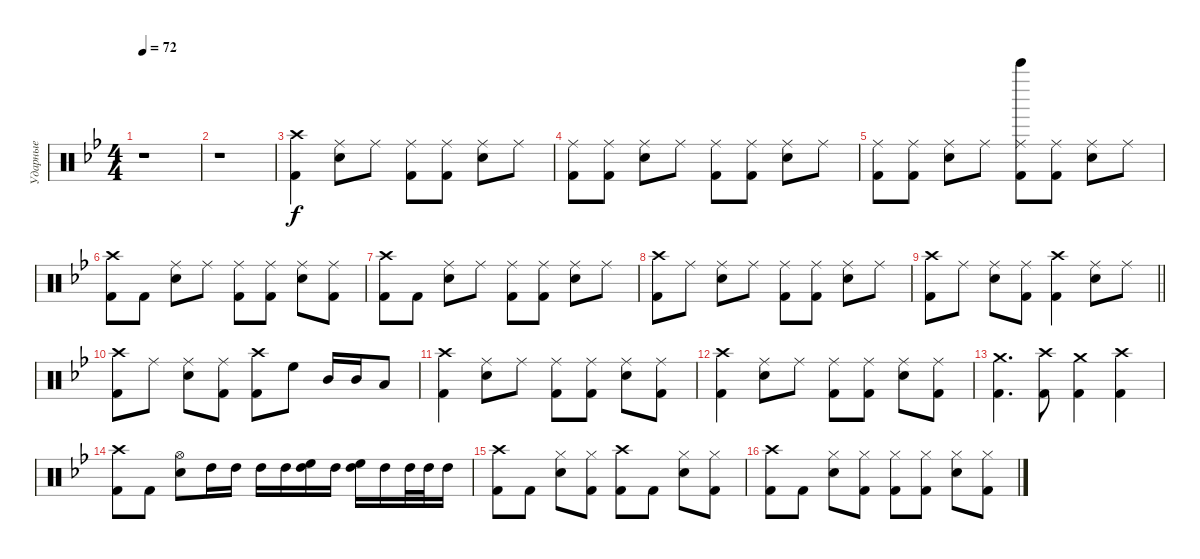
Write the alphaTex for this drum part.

\track ("Ударные" "Ударные") {instrument percussion}
\staff {score}
\articulation defaults
\ts (4 4)
\tempo 72
\clef neutral
\ks bb
r.1{dy f} |
r.1 |
("Crash high (hit)" "Kick (hit) 2").4 ("Ride (middle)" "Snare (hit) 2").8 "Ride (middle)".8 ("Ride (middle)" "Kick (hit) 2").8 ("Ride (middle)" "Kick (hit) 2").8 ("Ride (middle)" "Snare (hit) 2").8 "Ride (middle)".8 |
("Ride (middle)" "Kick (hit) 2").8 ("Ride (middle)" "Kick (hit) 2").8 ("Ride (middle)" "Snare (hit) 2").8 "Ride (middle)".8 ("Ride (middle)" "Kick (hit) 2").8 ("Ride (middle)" "Kick (hit) 2").8 ("Ride (middle)" "Snare (hit) 2").8 "Ride (middle)".8 |
("Ride (middle)" "Kick (hit) 2").8 ("Ride (middle)" "Kick (hit) 2").8 ("Ride (middle)" "Snare (hit) 2").8 "Ride (middle)".8 ("Ride (middle)" "Bell Tree (hit)" "Kick (hit) 2").8 ("Ride (middle)" "Kick (hit) 2").8 ("Ride (middle)" "Snare (hit) 2").8 "Ride (middle)".8 |
("Crash high (hit)" "Kick (hit) 2").8 "Kick (hit) 2".8 ("Ride (middle)" "Snare (hit) 2").8 "Ride (middle)".8 ("Ride (middle)" "Kick (hit) 2").8 ("Ride (middle)" "Kick (hit) 2").8 ("Ride (middle)" "Snare (hit) 2").8 ("Ride (middle)" "Kick (hit) 2").8 |
("Crash high (hit)" "Kick (hit) 2").8 "Kick (hit) 2".8 ("Ride (middle)" "Snare (hit) 2").8 "Ride (middle)".8 ("Ride (middle)" "Kick (hit) 2").8 ("Ride (middle)" "Kick (hit) 2").8 ("Ride (middle)" "Snare (hit) 2").8 "Ride (middle)".8 |
("Crash high (hit)" "Kick (hit) 2").8 "Ride (middle)".8 ("Ride (middle)" "Snare (hit) 2").8 "Ride (middle)".8 ("Ride (middle)" "Kick (hit) 2").8 ("Ride (middle)" "Kick (hit) 2").8 ("Ride (middle)" "Snare (hit) 2").8 "Ride (middle)".8 |
\barLineRight lightlight
("Crash high (hit)" "Kick (hit) 2").8 "Ride (middle)".8 ("Ride (middle)" "Snare (hit) 2").8 ("Ride (middle)" "Kick (hit) 2").8 ("Crash high (hit)" "Kick (hit) 2").4 ("Ride (middle)" "Snare (hit) 2").8 "Ride (middle)".8 |
("Crash high (hit)" "Kick (hit) 2").8 "Ride (middle)".8 ("Ride (middle)" "Snare (hit) 2").8 ("Ride (middle)" "Kick (hit) 2").8 ("Crash high (hit)" "Kick (hit) 2").8 "High Floor Tom (hit)".8 "Mid Tom (hit)".16 "Mid Tom (hit)".16 "Low Tom (hit)".8 |
("Crash high (hit)" "Kick (hit) 2").4 ("Ride (middle)" "Snare (hit) 2").8 "Ride (middle)".8 ("Ride (middle)" "Kick (hit) 2").8 ("Ride (middle)" "Kick (hit) 2").8 ("Ride (middle)" "Snare (hit) 2").8 ("Ride (middle)" "Kick (hit) 2").8 |
("Crash high (hit)" "Kick (hit) 2").4 ("Ride (middle)" "Snare (hit) 2").8 "Ride (middle)".8 ("Ride (middle)" "Kick (hit) 2").8 ("Ride (middle)" "Kick (hit) 2").8 ("Ride (middle)" "Snare (hit) 2").8 ("Ride (middle)" "Kick (hit) 2").8 |
("Crash medium (hit)" "Kick (hit) 2").4{d} ("Crash high (hit)" "Kick (hit) 2").8 ("Crash medium (hit)" "Kick (hit) 2").4 ("Crash high (hit)" "Kick (hit) 2").4 |
("Crash high (hit)" "Kick (hit) 2").8 "Kick (hit) 2".8 ("Hi-Hat (open)" "Snare (hit) 2").8 "High Tom (hit)".16 "High Tom (hit)".16 "High Tom (hit)".16 "High Tom (hit)".16 ("High Tom (hit)" "High Floor Tom (hit)").16 "High Tom (hit)".16 ("High Tom (hit)" "High Floor Tom (hit)").16 "High Tom (hit)".16 "High Tom (hit)".32 "High Tom (hit)".32 "High Tom (hit)".16 |
("Crash high (hit)" "Kick (hit) 2").8 "Kick (hit) 2".8 ("Hi-Hat (closed)" "Snare (hit) 2").8 ("Hi-Hat (closed)" "Kick (hit) 2").8 ("Crash high (hit)" "Kick (hit) 2").8 "Kick (hit) 2".8 ("Hi-Hat (closed)" "Snare (hit) 2").8 ("Hi-Hat (closed)" "Kick (hit) 2").8 |
("Crash high (hit)" "Kick (hit) 2").8 "Kick (hit) 2".8 ("Hi-Hat (closed)" "Snare (hit) 2").8 ("Hi-Hat (closed)" "Kick (hit) 2").8 ("Hi-Hat (closed)" "Kick (hit) 2").8 ("Hi-Hat (closed)" "Kick (hit) 2").8 ("Hi-Hat (closed)" "Snare (hit) 2").8 ("Hi-Hat (closed)" "Kick (hit) 2").8
